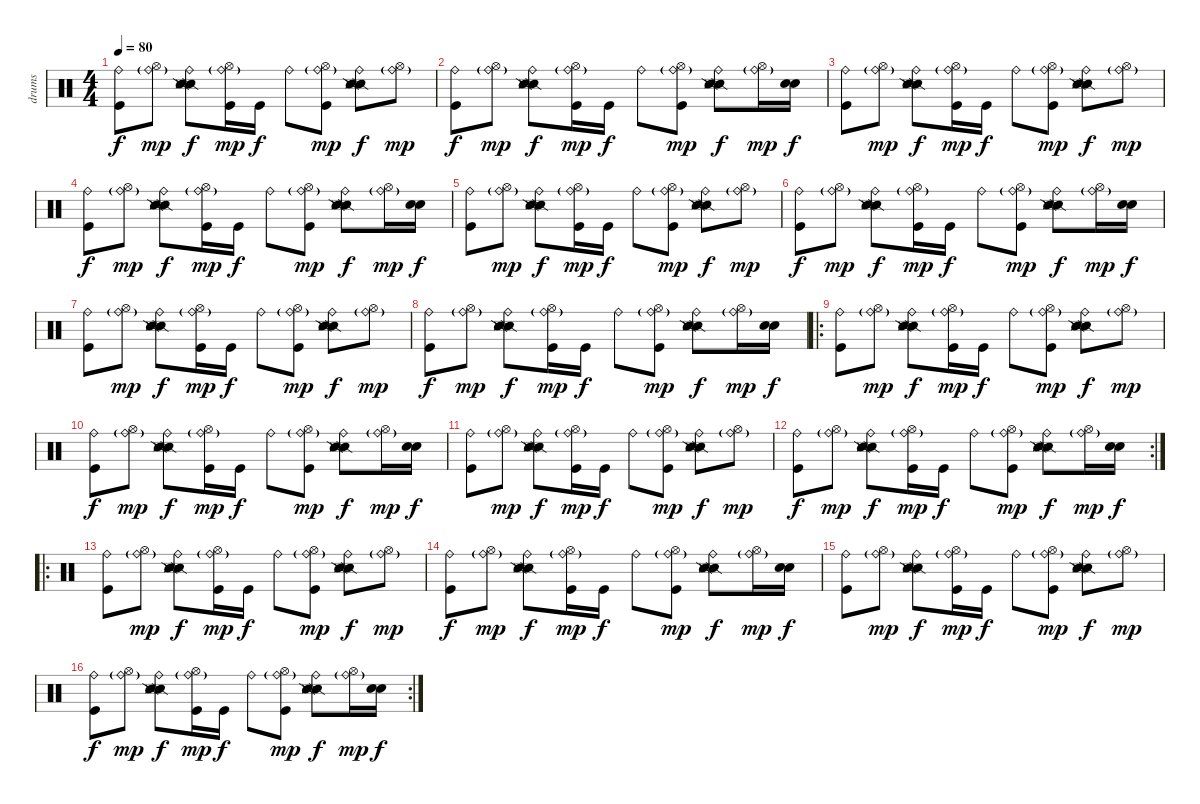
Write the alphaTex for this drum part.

\track ("drums" "drums") {instrument percussion}
\staff {score}
\articulation defaults
\ts (4 4)
\tempo 80
\clef neutral
\ks c
("Ride (bell)" "Kick (hit)").8{dy f} ("Ride (bell)"{g} "Hi-Hat (open)").8{dy mp} ("Ride (bell)" "Snare (side stick) 2" "Snare (side stick) 2" "Metronome (hit)" "Metronome (hit)").8{dy f} ("Ride (bell)"{g} "Hi-Hat (open)" "Kick (hit)").16{dy mp} "Kick (hit)".16{dy f} "Ride (bell)".8 ("Ride (bell)"{g} "Hi-Hat (open)" "Kick (hit)").8{dy mp} ("Ride (bell)" "Snare (side stick) 2" "Snare (side stick) 2" "Metronome (hit)" "Metronome (hit)").8{dy f} ("Ride (bell)"{g} "Hi-Hat (open)").8{dy mp} |
("Ride (bell)" "Kick (hit)").8{dy f} ("Ride (bell)"{g} "Hi-Hat (open)").8{dy mp} ("Ride (bell)" "Snare (side stick) 2" "Snare (side stick) 2" "Metronome (hit)" "Metronome (hit)").8{dy f} ("Ride (bell)"{g} "Hi-Hat (open)" "Kick (hit)").16{dy mp} "Kick (hit)".16{dy f} "Ride (bell)".8 ("Ride (bell)"{g} "Hi-Hat (open)" "Kick (hit)").8{dy mp} ("Ride (bell)" "Snare (side stick) 2" "Snare (side stick) 2" "Metronome (hit)" "Metronome (hit)").8{dy f} ("Ride (bell)"{g} "Hi-Hat (open)").16{dy mp} ("Snare (hit) 2" "Snare (hit) 2").16{dy f} |
("Ride (bell)" "Kick (hit)").8 ("Ride (bell)"{g} "Hi-Hat (open)").8{dy mp} ("Ride (bell)" "Snare (side stick) 2" "Snare (side stick) 2" "Metronome (hit)" "Metronome (hit)").8{dy f} ("Ride (bell)"{g} "Hi-Hat (open)" "Kick (hit)").16{dy mp} "Kick (hit)".16{dy f} "Ride (bell)".8 ("Ride (bell)"{g} "Hi-Hat (open)" "Kick (hit)").8{dy mp} ("Ride (bell)" "Snare (side stick) 2" "Snare (side stick) 2" "Metronome (hit)" "Metronome (hit)").8{dy f} ("Ride (bell)"{g} "Hi-Hat (open)").8{dy mp} |
("Ride (bell)" "Kick (hit)").8{dy f} ("Ride (bell)"{g} "Hi-Hat (open)").8{dy mp} ("Ride (bell)" "Snare (side stick) 2" "Snare (side stick) 2" "Metronome (hit)" "Metronome (hit)").8{dy f} ("Ride (bell)"{g} "Hi-Hat (open)" "Kick (hit)").16{dy mp} "Kick (hit)".16{dy f} "Ride (bell)".8 ("Ride (bell)"{g} "Hi-Hat (open)" "Kick (hit)").8{dy mp} ("Ride (bell)" "Snare (side stick) 2" "Snare (side stick) 2" "Metronome (hit)" "Metronome (hit)").8{dy f} ("Ride (bell)"{g} "Hi-Hat (open)").16{dy mp} ("Snare (hit) 2" "Snare (hit) 2").16{dy f} |
("Ride (bell)" "Kick (hit)").8 ("Ride (bell)"{g} "Hi-Hat (open)").8{dy mp} ("Ride (bell)" "Snare (side stick) 2" "Snare (side stick) 2" "Metronome (hit)" "Metronome (hit)").8{dy f} ("Ride (bell)"{g} "Hi-Hat (open)" "Kick (hit)").16{dy mp} "Kick (hit)".16{dy f} "Ride (bell)".8 ("Ride (bell)"{g} "Hi-Hat (open)" "Kick (hit)").8{dy mp} ("Ride (bell)" "Snare (side stick) 2" "Snare (side stick) 2" "Metronome (hit)" "Metronome (hit)").8{dy f} ("Ride (bell)"{g} "Hi-Hat (open)").8{dy mp} |
("Ride (bell)" "Kick (hit)").8{dy f} ("Ride (bell)"{g} "Hi-Hat (open)").8{dy mp} ("Ride (bell)" "Snare (side stick) 2" "Snare (side stick) 2" "Metronome (hit)" "Metronome (hit)").8{dy f} ("Ride (bell)"{g} "Hi-Hat (open)" "Kick (hit)").16{dy mp} "Kick (hit)".16{dy f} "Ride (bell)".8 ("Ride (bell)"{g} "Hi-Hat (open)" "Kick (hit)").8{dy mp} ("Ride (bell)" "Snare (side stick) 2" "Snare (side stick) 2" "Metronome (hit)" "Metronome (hit)").8{dy f} ("Ride (bell)"{g} "Hi-Hat (open)").16{dy mp} ("Snare (hit) 2" "Snare (hit) 2").16{dy f} |
("Ride (bell)" "Kick (hit)").8 ("Ride (bell)"{g} "Hi-Hat (open)").8{dy mp} ("Ride (bell)" "Snare (side stick) 2" "Snare (side stick) 2" "Metronome (hit)" "Metronome (hit)").8{dy f} ("Ride (bell)"{g} "Hi-Hat (open)" "Kick (hit)").16{dy mp} "Kick (hit)".16{dy f} "Ride (bell)".8 ("Ride (bell)"{g} "Hi-Hat (open)" "Kick (hit)").8{dy mp} ("Ride (bell)" "Snare (side stick) 2" "Snare (side stick) 2" "Metronome (hit)" "Metronome (hit)").8{dy f} ("Ride (bell)"{g} "Hi-Hat (open)").8{dy mp} |
("Ride (bell)" "Kick (hit)").8{dy f} ("Ride (bell)"{g} "Hi-Hat (open)").8{dy mp} ("Ride (bell)" "Snare (side stick) 2" "Snare (side stick) 2" "Metronome (hit)" "Metronome (hit)").8{dy f} ("Ride (bell)"{g} "Hi-Hat (open)" "Kick (hit)").16{dy mp} "Kick (hit)".16{dy f} "Ride (bell)".8 ("Ride (bell)"{g} "Hi-Hat (open)" "Kick (hit)").8{dy mp} ("Ride (bell)" "Snare (side stick) 2" "Snare (side stick) 2" "Metronome (hit)" "Metronome (hit)").8{dy f} ("Ride (bell)"{g} "Hi-Hat (open)").16{dy mp} ("Snare (hit) 2" "Snare (hit) 2").16{dy f} |
\ro
("Ride (bell)" "Kick (hit)").8 ("Ride (bell)"{g} "Hi-Hat (open)").8{dy mp} ("Ride (bell)" "Snare (side stick) 2" "Snare (side stick) 2" "Metronome (hit)" "Metronome (hit)").8{dy f} ("Ride (bell)"{g} "Hi-Hat (open)" "Kick (hit)").16{dy mp} "Kick (hit)".16{dy f} "Ride (bell)".8 ("Ride (bell)"{g} "Hi-Hat (open)" "Kick (hit)").8{dy mp} ("Ride (bell)" "Snare (side stick) 2" "Snare (side stick) 2" "Metronome (hit)" "Metronome (hit)").8{dy f} ("Ride (bell)"{g} "Hi-Hat (open)").8{dy mp} |
("Ride (bell)" "Kick (hit)").8{dy f} ("Ride (bell)"{g} "Hi-Hat (open)").8{dy mp} ("Ride (bell)" "Snare (side stick) 2" "Snare (side stick) 2" "Metronome (hit)" "Metronome (hit)").8{dy f} ("Ride (bell)"{g} "Hi-Hat (open)" "Kick (hit)").16{dy mp} "Kick (hit)".16{dy f} "Ride (bell)".8 ("Ride (bell)"{g} "Hi-Hat (open)" "Kick (hit)").8{dy mp} ("Ride (bell)" "Snare (side stick) 2" "Snare (side stick) 2" "Metronome (hit)" "Metronome (hit)").8{dy f} ("Ride (bell)"{g} "Hi-Hat (open)").16{dy mp} ("Snare (hit) 2" "Snare (hit) 2").16{dy f} |
("Ride (bell)" "Kick (hit)").8 ("Ride (bell)"{g} "Hi-Hat (open)").8{dy mp} ("Ride (bell)" "Snare (side stick) 2" "Snare (side stick) 2" "Metronome (hit)" "Metronome (hit)").8{dy f} ("Ride (bell)"{g} "Hi-Hat (open)" "Kick (hit)").16{dy mp} "Kick (hit)".16{dy f} "Ride (bell)".8 ("Ride (bell)"{g} "Hi-Hat (open)" "Kick (hit)").8{dy mp} ("Ride (bell)" "Snare (side stick) 2" "Snare (side stick) 2" "Metronome (hit)" "Metronome (hit)").8{dy f} ("Ride (bell)"{g} "Hi-Hat (open)").8{dy mp} |
\rc 2
("Ride (bell)" "Kick (hit)").8{dy f} ("Ride (bell)"{g} "Hi-Hat (open)").8{dy mp} ("Ride (bell)" "Snare (side stick) 2" "Snare (side stick) 2" "Metronome (hit)" "Metronome (hit)").8{dy f} ("Ride (bell)"{g} "Hi-Hat (open)" "Kick (hit)").16{dy mp} "Kick (hit)".16{dy f} "Ride (bell)".8 ("Ride (bell)"{g} "Hi-Hat (open)" "Kick (hit)").8{dy mp} ("Ride (bell)" "Snare (side stick) 2" "Snare (side stick) 2" "Metronome (hit)" "Metronome (hit)").8{dy f} ("Ride (bell)"{g} "Hi-Hat (open)").16{dy mp} ("Snare (hit) 2" "Snare (hit) 2").16{dy f} |
\ro
("Ride (bell)" "Kick (hit)").8 ("Ride (bell)"{g} "Hi-Hat (open)").8{dy mp} ("Ride (bell)" "Snare (side stick) 2" "Snare (side stick) 2" "Metronome (hit)" "Metronome (hit)").8{dy f} ("Ride (bell)"{g} "Hi-Hat (open)" "Kick (hit)").16{dy mp} "Kick (hit)".16{dy f} "Ride (bell)".8 ("Ride (bell)"{g} "Hi-Hat (open)" "Kick (hit)").8{dy mp} ("Ride (bell)" "Snare (side stick) 2" "Snare (side stick) 2" "Metronome (hit)" "Metronome (hit)").8{dy f} ("Ride (bell)"{g} "Hi-Hat (open)").8{dy mp} |
("Ride (bell)" "Kick (hit)").8{dy f} ("Ride (bell)"{g} "Hi-Hat (open)").8{dy mp} ("Ride (bell)" "Snare (side stick) 2" "Snare (side stick) 2" "Metronome (hit)" "Metronome (hit)").8{dy f} ("Ride (bell)"{g} "Hi-Hat (open)" "Kick (hit)").16{dy mp} "Kick (hit)".16{dy f} "Ride (bell)".8 ("Ride (bell)"{g} "Hi-Hat (open)" "Kick (hit)").8{dy mp} ("Ride (bell)" "Snare (side stick) 2" "Snare (side stick) 2" "Metronome (hit)" "Metronome (hit)").8{dy f} ("Ride (bell)"{g} "Hi-Hat (open)").16{dy mp} ("Snare (hit) 2" "Snare (hit) 2").16{dy f} |
("Ride (bell)" "Kick (hit)").8 ("Ride (bell)"{g} "Hi-Hat (open)").8{dy mp} ("Ride (bell)" "Snare (side stick) 2" "Snare (side stick) 2" "Metronome (hit)" "Metronome (hit)").8{dy f} ("Ride (bell)"{g} "Hi-Hat (open)" "Kick (hit)").16{dy mp} "Kick (hit)".16{dy f} "Ride (bell)".8 ("Ride (bell)"{g} "Hi-Hat (open)" "Kick (hit)").8{dy mp} ("Ride (bell)" "Snare (side stick) 2" "Snare (side stick) 2" "Metronome (hit)" "Metronome (hit)").8{dy f} ("Ride (bell)"{g} "Hi-Hat (open)").8{dy mp} |
\rc 2
("Ride (bell)" "Kick (hit)").8{dy f} ("Ride (bell)"{g} "Hi-Hat (open)").8{dy mp} ("Ride (bell)" "Snare (side stick) 2" "Snare (side stick) 2" "Metronome (hit)" "Metronome (hit)").8{dy f} ("Ride (bell)"{g} "Hi-Hat (open)" "Kick (hit)").16{dy mp} "Kick (hit)".16{dy f} "Ride (bell)".8 ("Ride (bell)"{g} "Hi-Hat (open)" "Kick (hit)").8{dy mp} ("Ride (bell)" "Snare (side stick) 2" "Snare (side stick) 2" "Metronome (hit)" "Metronome (hit)").8{dy f} ("Ride (bell)"{g} "Hi-Hat (open)").16{dy mp} ("Snare (hit) 2" "Snare (hit) 2").16{dy f}
